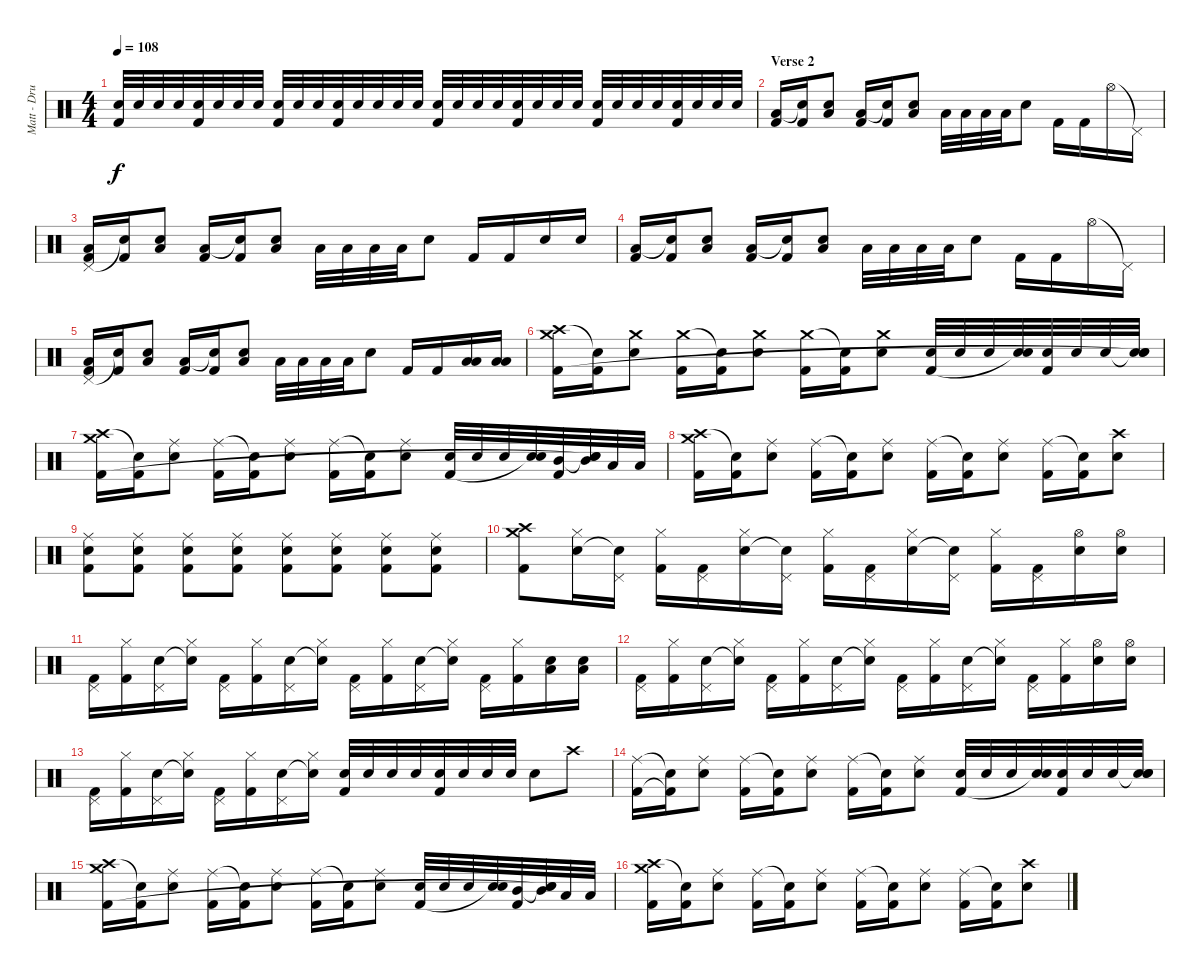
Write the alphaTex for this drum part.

\track ("Matt - Drums" "Matt - Dru") {instrument percussion}
\staff {score}
\articulation defaults
\ts (4 4)
\tempo 108
\clef neutral
\ks c
("Snare (hit) 2" "Kick (hit) 2").32{dy f} "Snare (hit) 2".32 "Snare (hit) 2".32 "Snare (hit) 2".32 ("Snare (hit) 2" "Kick (hit) 2").32 "Snare (hit) 2".32 "Snare (hit) 2".32 "Snare (hit) 2".32 ("Snare (hit) 2" "Kick (hit) 2").32 "Snare (hit) 2".32 "Snare (hit) 2".32 ("Snare (hit) 2" "Kick (hit) 2").32 "Snare (hit) 2".32 "Snare (hit) 2".32 "Snare (hit) 2".32 "Snare (hit) 2".32 ("Snare (hit) 2" "Kick (hit) 2").32 "Snare (hit) 2".32 "Snare (hit) 2".32 "Snare (hit) 2".32 ("Snare (hit) 2" "Kick (hit) 2").32 "Snare (hit) 2".32 "Snare (hit) 2".32 "Snare (hit) 2".32 ("Snare (hit) 2" "Kick (hit) 2").32 "Snare (hit) 2".32 "Snare (hit) 2".32 "Snare (hit) 2".32 ("Snare (hit) 2" "Kick (hit) 2").32 "Snare (hit) 2".32 "Snare (hit) 2".32 "Snare (hit) 2".32 |
\section ("" "Verse 2")
("Low Floor Tom (hit)" "Kick (hit) 2").16 ("Snare (hit)"{t} "Kick (hit) 2").16 ("Low Floor Tom (hit)" "Snare (hit) 2").8 ("Low Floor Tom (hit)" "Kick (hit) 2").16 ("Snare (hit)"{t} "Kick (hit) 2").16 ("Low Floor Tom (hit)" "Snare (hit) 2").8 "Low Tom (hit)".32 "Low Tom (hit)".32 "Low Floor Tom (hit)".32 "Low Floor Tom (hit)".32 "Snare (hit) 2".8 "Kick (hit) 2".16 "Kick (hit) 2".16 "Hi-Hat (open)".16 "Pedal Hi-Hat (hit)"{t}.16 |
("Pedal Hi-Hat (hit)" "Low Floor Tom (hit)" "Kick (hit) 2").16 ("Snare (hit)"{t} "Kick (hit) 2").16 ("Low Floor Tom (hit)" "Snare (hit) 2").8 ("Low Floor Tom (hit)" "Kick (hit) 2").16 ("Snare (hit)"{t} "Kick (hit) 2").16 ("Low Floor Tom (hit)" "Snare (hit) 2").8 "Low Tom (hit)".32 "Low Tom (hit)".32 "Low Floor Tom (hit)".32 "Low Floor Tom (hit)".32 "Snare (hit) 2".8 "Kick (hit) 2".16 "Kick (hit) 2".16 "Snare (hit) 2".16 "Snare (hit) 2".16 |
("Low Floor Tom (hit)" "Kick (hit) 2").16 ("Snare (hit)"{t} "Kick (hit) 2").16 ("Low Floor Tom (hit)" "Snare (hit) 2").8 ("Low Floor Tom (hit)" "Kick (hit) 2").16 ("Snare (hit)"{t} "Kick (hit) 2").16 ("Low Floor Tom (hit)" "Snare (hit) 2").8 "Low Tom (hit)".32 "Low Tom (hit)".32 "Low Floor Tom (hit)".32 "Low Floor Tom (hit)".32 "Snare (hit) 2".8 "Kick (hit) 2".16 "Kick (hit) 2".16 "Hi-Hat (open)".16 "Pedal Hi-Hat (hit)"{t}.16 |
("Pedal Hi-Hat (hit)" "Low Floor Tom (hit)" "Kick (hit) 2").16 ("Snare (hit)"{t} "Kick (hit) 2").16 ("Low Floor Tom (hit)" "Snare (hit) 2").8 ("Low Floor Tom (hit)" "Kick (hit) 2").16 ("Snare (hit)"{t} "Kick (hit) 2").16 ("Low Floor Tom (hit)" "Snare (hit) 2").8 "Low Tom (hit)".32 "Low Tom (hit)".32 "Low Floor Tom (hit)".32 "Low Floor Tom (hit)".32 "Snare (hit) 2".8 "Kick (hit) 2".16 "Kick (hit) 2".16 ("Low Tom (hit)" "Low Floor Tom (hit)").16 ("Low Tom (hit)" "Low Floor Tom (hit)").16 |
("Crash high (hit)" "Crash medium (hit)" "Kick (hit) 2").16 ("Snare (hit)"{t} "Kick (hit) 2").16 ("Crash medium (hit)" "Snare (hit) 2").8 ("Crash medium (hit)" "Kick (hit) 2").16 ("Snare (hit)"{t} "Kick (hit) 2").16 ("Crash medium (hit)" "Snare (hit) 2").8 ("Crash medium (hit)" "Kick (hit) 2").16 ("Snare (hit)"{t} "Kick (hit) 2").16 ("Crash medium (hit)" "Snare (hit) 2").8 ("Snare (hit) 2" "Kick (hit) 2").32 "Snare (hit) 2".32 "Snare (hit) 2".32 ("Snare (hit) 2" "Snare (hit)"{t}).32 ("Snare (hit) 2" "Kick (hit) 2").32 "Snare (hit) 2".32 "Snare (hit) 2".32 ("Snare (hit)"{t} "Snare (hit) 2" "Snare (hit)"{t}).32 |
("Crash high (hit)" "Crash medium (hit)" "Kick (hit) 2").16 ("Snare (hit)"{t} "Kick (hit) 2").16 ("Ride (middle)" "Snare (hit) 2").8 ("Ride (middle)" "Kick (hit) 2").16 ("Snare (hit)"{t} "Kick (hit) 2").16 ("Ride (middle)" "Snare (hit) 2").8 ("Ride (middle)" "Kick (hit) 2").16 ("Snare (hit)"{t} "Kick (hit) 2").16 ("Ride (middle)" "Snare (hit) 2").8 ("Snare (hit) 2" "Kick (hit) 2").32 "Snare (hit) 2".32 "Snare (hit) 2".32 ("Snare (hit) 2" "Snare (hit)"{t}).32 ("Mid Tom (hit)" "Kick (hit) 2").32 ("Snare (hit)"{t} "Mid Tom (hit)" "Snare (hit)"{t}).32 "Low Tom (hit)".32 "Low Tom (hit)".32 |
("Crash high (hit)" "Crash medium (hit)" "Kick (hit) 2").16 ("Snare (hit)"{t} "Kick (hit) 2").16 ("Ride (middle)" "Snare (hit) 2").8 ("Ride (middle)" "Kick (hit) 2").16 ("Snare (hit)"{t} "Kick (hit) 2").16 ("Ride (middle)" "Snare (hit) 2").8 ("Ride (middle)" "Kick (hit) 2").16 ("Snare (hit)"{t} "Kick (hit) 2").16 ("Ride (middle)" "Snare (hit) 2").8 ("Ride (middle)" "Kick (hit) 2").16 ("Snare (hit)"{t} "Kick (hit) 2").16 ("Crash high (hit)" "Snare (hit) 2").8 |
("Ride (middle)" "Snare (hit) 2" "Kick (hit) 2").8 ("Ride (middle)" "Snare (hit) 2" "Kick (hit) 2").8 ("Ride (middle)" "Snare (hit) 2" "Kick (hit) 2").8 ("Ride (middle)" "Snare (hit) 2" "Kick (hit) 2").8 ("Ride (middle)" "Snare (hit) 2" "Kick (hit) 2").8 ("Ride (middle)" "Snare (hit) 2" "Kick (hit) 2").8 ("Ride (middle)" "Snare (hit) 2" "Kick (hit) 2").8 ("Ride (middle)" "Snare (hit) 2" "Kick (hit) 2").8 |
("Crash high (hit)" "Crash medium (hit)" "Kick (hit) 2").8 ("Hi-Hat (closed)" "Snare (hit) 2").16 ("Pedal Hi-Hat (hit)" "Snare (hit)"{t}).16 ("Hi-Hat (closed)" "Kick (hit) 2").16 ("Pedal Hi-Hat (hit)" "Kick (hit) 2").16 ("Hi-Hat (closed)" "Snare (hit) 2").16 ("Pedal Hi-Hat (hit)" "Snare (hit)"{t}).16 ("Hi-Hat (closed)" "Kick (hit) 2").16 ("Pedal Hi-Hat (hit)" "Kick (hit) 2").16 ("Hi-Hat (closed)" "Snare (hit) 2").16 ("Pedal Hi-Hat (hit)" "Snare (hit)"{t}).16 ("Hi-Hat (closed)" "Kick (hit) 2").16 ("Pedal Hi-Hat (hit)" "Kick (hit) 2").16 ("Hi-Hat (open)" "Snare (hit) 2").16 ("Hi-Hat (open)" "Snare (hit) 2").16 |
("Pedal Hi-Hat (hit)" "Kick (hit) 2").16 ("Hi-Hat (closed)" "Kick (hit) 2").16 ("Pedal Hi-Hat (hit)" "Snare (hit) 2").16 ("Hi-Hat (closed)" "Snare (hit)"{t}).16 ("Pedal Hi-Hat (hit)" "Kick (hit) 2").16 ("Hi-Hat (closed)" "Kick (hit) 2").16 ("Pedal Hi-Hat (hit)" "Snare (hit) 2").16 ("Hi-Hat (closed)" "Snare (hit)"{t}).16 ("Pedal Hi-Hat (hit)" "Kick (hit) 2").16 ("Hi-Hat (closed)" "Kick (hit) 2").16 ("Pedal Hi-Hat (hit)" "Snare (hit) 2").16 ("Hi-Hat (closed)" "Snare (hit)"{t}).16 ("Pedal Hi-Hat (hit)" "Kick (hit) 2").16 ("Hi-Hat (closed)" "Kick (hit) 2").16 ("Snare (hit) 2" "Low Floor Tom (hit)").16 ("Snare (hit) 2" "Low Floor Tom (hit)").16 |
("Pedal Hi-Hat (hit)" "Kick (hit) 2").16 ("Hi-Hat (closed)" "Kick (hit) 2").16 ("Pedal Hi-Hat (hit)" "Snare (hit) 2").16 ("Hi-Hat (closed)" "Snare (hit)"{t}).16 ("Pedal Hi-Hat (hit)" "Kick (hit) 2").16 ("Hi-Hat (closed)" "Kick (hit) 2").16 ("Pedal Hi-Hat (hit)" "Snare (hit) 2").16 ("Hi-Hat (closed)" "Snare (hit)"{t}).16 ("Pedal Hi-Hat (hit)" "Kick (hit) 2").16 ("Hi-Hat (closed)" "Kick (hit) 2").16 ("Pedal Hi-Hat (hit)" "Snare (hit) 2").16 ("Hi-Hat (closed)" "Snare (hit)"{t}).16 ("Pedal Hi-Hat (hit)" "Kick (hit) 2").16 ("Hi-Hat (closed)" "Kick (hit) 2").16 ("Hi-Hat (open)" "Snare (hit) 2").16 ("Hi-Hat (open)" "Snare (hit) 2").16 |
("Pedal Hi-Hat (hit)" "Kick (hit) 2").16 ("Hi-Hat (closed)" "Kick (hit) 2").16 ("Pedal Hi-Hat (hit)" "Snare (hit) 2").16 ("Hi-Hat (closed)" "Snare (hit)"{t}).16 ("Pedal Hi-Hat (hit)" "Kick (hit) 2").16 ("Hi-Hat (closed)" "Kick (hit) 2").16 ("Pedal Hi-Hat (hit)" "Snare (hit) 2").16 ("Hi-Hat (closed)" "Snare (hit)"{t}).16 ("Snare (hit) 2" "Kick (hit) 2").32 "Snare (hit) 2".32 "Snare (hit) 2".32 "Snare (hit) 2".32 ("Snare (hit) 2" "Kick (hit) 2").32 "Snare (hit) 2".32 "Snare (hit) 2".32 "Snare (hit) 2".32 "Snare (hit) 2".8 "Crash high (hit)".8 |
("Ride (middle)" "Kick (hit) 2").16 ("Snare (hit)"{t} "Kick (hit) 2"{t}).16 ("Ride (middle)" "Snare (hit) 2").8 ("Ride (middle)" "Kick (hit) 2").16 ("Snare (hit)"{t} "Kick (hit) 2").16 ("Ride (middle)" "Snare (hit) 2").8 ("Ride (middle)" "Kick (hit) 2").16 ("Snare (hit)"{t} "Kick (hit) 2").16 ("Ride (middle)" "Snare (hit) 2").8 ("Snare (hit) 2" "Kick (hit) 2").32 "Snare (hit) 2".32 "Snare (hit) 2".32 ("Snare (hit) 2" "Snare (hit)"{t}).32 ("Snare (hit) 2" "Kick (hit) 2").32 "Snare (hit) 2".32 "Snare (hit) 2".32 ("Snare (hit)"{t} "Snare (hit) 2" "Snare (hit)").32 |
("Crash high (hit)" "Crash medium (hit)" "Kick (hit) 2").16 ("Snare (hit)"{t} "Kick (hit) 2").16 ("Ride (middle)" "Snare (hit) 2").8 ("Ride (middle)" "Kick (hit) 2").16 ("Snare (hit)"{t} "Kick (hit) 2").16 ("Ride (middle)" "Snare (hit) 2").8 ("Ride (middle)" "Kick (hit) 2").16 ("Snare (hit)"{t} "Kick (hit) 2").16 ("Ride (middle)" "Snare (hit) 2").8 ("Snare (hit) 2" "Kick (hit) 2").32 "Snare (hit) 2".32 "Snare (hit) 2".32 ("Snare (hit) 2" "Snare (hit)"{t}).32 ("Mid Tom (hit)" "Kick (hit) 2").32 ("Snare (hit)"{t} "Mid Tom (hit)" "Snare (hit)"{t}).32 "Low Tom (hit)".32 "Low Tom (hit)".32 |
("Crash high (hit)" "Crash medium (hit)" "Kick (hit) 2").16 ("Snare (hit)"{t} "Kick (hit) 2").16 ("Ride (middle)" "Snare (hit) 2").8 ("Ride (middle)" "Kick (hit) 2").16 ("Snare (hit)"{t} "Kick (hit) 2").16 ("Ride (middle)" "Snare (hit) 2").8 ("Ride (middle)" "Kick (hit) 2").16 ("Snare (hit)"{t} "Kick (hit) 2").16 ("Ride (middle)" "Snare (hit) 2").8 ("Ride (middle)" "Kick (hit) 2").16 ("Snare (hit)"{t} "Kick (hit) 2").16 ("Crash high (hit)" "Snare (hit) 2").8
